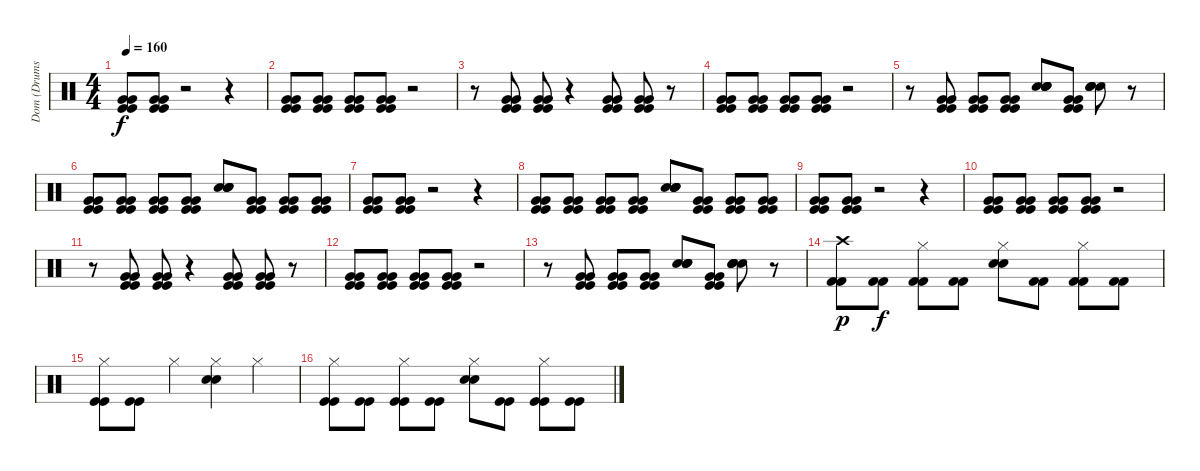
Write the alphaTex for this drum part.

\track ("Dom (Drums)" "Dom (Drums") {instrument percussion}
\staff {score}
\articulation defaults
\ts (4 4)
\tempo 160
\clef neutral
\ks c
("Very Low Tom (hit)" "Very Low Tom (hit)" "Kick (hit)" "Kick (hit)").8{dy f} ("Very Low Tom (hit)" "Very Low Tom (hit)" "Kick (hit)" "Kick (hit)").8 r.2 r.4 |
("Very Low Tom (hit)" "Very Low Tom (hit)" "Kick (hit)" "Kick (hit)").8 ("Very Low Tom (hit)" "Very Low Tom (hit)" "Kick (hit)" "Kick (hit)").8 ("Very Low Tom (hit)" "Very Low Tom (hit)" "Kick (hit)" "Kick (hit)").8 ("Very Low Tom (hit)" "Very Low Tom (hit)" "Kick (hit)" "Kick (hit)").8 r.2 |
r.8 ("Very Low Tom (hit)" "Very Low Tom (hit)" "Kick (hit)" "Kick (hit)").8 ("Very Low Tom (hit)" "Very Low Tom (hit)" "Kick (hit)" "Kick (hit)").8 r.4 ("Very Low Tom (hit)" "Very Low Tom (hit)" "Kick (hit)" "Kick (hit)").8 ("Very Low Tom (hit)" "Very Low Tom (hit)" "Kick (hit)" "Kick (hit)").8 r.8 |
("Very Low Tom (hit)" "Very Low Tom (hit)" "Kick (hit)" "Kick (hit)").8 ("Very Low Tom (hit)" "Very Low Tom (hit)" "Kick (hit)" "Kick (hit)").8 ("Very Low Tom (hit)" "Very Low Tom (hit)" "Kick (hit)" "Kick (hit)").8 ("Very Low Tom (hit)" "Very Low Tom (hit)" "Kick (hit)" "Kick (hit)").8 r.2 |
r.8 ("Very Low Tom (hit)" "Very Low Tom (hit)" "Kick (hit)" "Kick (hit)").8 ("Very Low Tom (hit)" "Very Low Tom (hit)" "Kick (hit)" "Kick (hit)").8 ("Very Low Tom (hit)" "Very Low Tom (hit)" "Kick (hit)" "Kick (hit)").8 ("Snare (hit) 2" "Snare (hit) 2" "Snare (hit) 2" "Snare (hit) 2").8 ("Very Low Tom (hit)" "Very Low Tom (hit)" "Kick (hit)" "Kick (hit)").8 ("Snare (hit) 2" "Snare (hit) 2" "Snare (hit) 2" "Snare (hit) 2").8 r.8 |
("Very Low Tom (hit)" "Very Low Tom (hit)" "Kick (hit)" "Kick (hit)").8{volume 10} ("Very Low Tom (hit)" "Very Low Tom (hit)" "Kick (hit)" "Kick (hit)").8 ("Very Low Tom (hit)" "Very Low Tom (hit)" "Kick (hit)" "Kick (hit)").8 ("Very Low Tom (hit)" "Very Low Tom (hit)" "Kick (hit)" "Kick (hit)").8 ("Snare (hit) 2" "Snare (hit) 2" "Snare (hit) 2" "Snare (hit) 2").8 ("Very Low Tom (hit)" "Very Low Tom (hit)" "Kick (hit)" "Kick (hit)").8 ("Very Low Tom (hit)" "Very Low Tom (hit)" "Kick (hit)" "Kick (hit)").8 ("Very Low Tom (hit)" "Very Low Tom (hit)" "Kick (hit)" "Kick (hit)").8 |
("Very Low Tom (hit)" "Very Low Tom (hit)" "Kick (hit)" "Kick (hit)").8 ("Very Low Tom (hit)" "Very Low Tom (hit)" "Kick (hit)" "Kick (hit)").8 r.2 r.4 |
("Very Low Tom (hit)" "Very Low Tom (hit)" "Kick (hit)" "Kick (hit)").8 ("Very Low Tom (hit)" "Very Low Tom (hit)" "Kick (hit)" "Kick (hit)").8 ("Very Low Tom (hit)" "Very Low Tom (hit)" "Kick (hit)" "Kick (hit)").8 ("Very Low Tom (hit)" "Very Low Tom (hit)" "Kick (hit)" "Kick (hit)").8 ("Snare (hit) 2" "Snare (hit) 2" "Snare (hit) 2" "Snare (hit) 2").8 ("Very Low Tom (hit)" "Very Low Tom (hit)" "Kick (hit)" "Kick (hit)").8 ("Very Low Tom (hit)" "Very Low Tom (hit)" "Kick (hit)" "Kick (hit)").8 ("Very Low Tom (hit)" "Very Low Tom (hit)" "Kick (hit)" "Kick (hit)").8 |
("Very Low Tom (hit)" "Very Low Tom (hit)" "Kick (hit)" "Kick (hit)").8 ("Very Low Tom (hit)" "Very Low Tom (hit)" "Kick (hit)" "Kick (hit)").8 r.2 r.4 |
("Very Low Tom (hit)" "Very Low Tom (hit)" "Kick (hit)" "Kick (hit)").8 ("Very Low Tom (hit)" "Very Low Tom (hit)" "Kick (hit)" "Kick (hit)").8 ("Very Low Tom (hit)" "Very Low Tom (hit)" "Kick (hit)" "Kick (hit)").8 ("Very Low Tom (hit)" "Very Low Tom (hit)" "Kick (hit)" "Kick (hit)").8 r.2 |
r.8 ("Very Low Tom (hit)" "Very Low Tom (hit)" "Kick (hit)" "Kick (hit)").8 ("Very Low Tom (hit)" "Very Low Tom (hit)" "Kick (hit)" "Kick (hit)").8 r.4 ("Very Low Tom (hit)" "Very Low Tom (hit)" "Kick (hit)" "Kick (hit)").8 ("Very Low Tom (hit)" "Very Low Tom (hit)" "Kick (hit)" "Kick (hit)").8 r.8 |
("Very Low Tom (hit)" "Very Low Tom (hit)" "Kick (hit)" "Kick (hit)").8 ("Very Low Tom (hit)" "Very Low Tom (hit)" "Kick (hit)" "Kick (hit)").8 ("Very Low Tom (hit)" "Very Low Tom (hit)" "Kick (hit)" "Kick (hit)").8 ("Very Low Tom (hit)" "Very Low Tom (hit)" "Kick (hit)" "Kick (hit)").8 r.2 |
r.8 ("Very Low Tom (hit)" "Very Low Tom (hit)" "Kick (hit)" "Kick (hit)").8 ("Very Low Tom (hit)" "Very Low Tom (hit)" "Kick (hit)" "Kick (hit)").8 ("Very Low Tom (hit)" "Very Low Tom (hit)" "Kick (hit)" "Kick (hit)").8 ("Snare (hit) 2" "Snare (hit) 2" "Snare (hit) 2" "Snare (hit) 2").8 ("Very Low Tom (hit)" "Very Low Tom (hit)" "Kick (hit)" "Kick (hit)").8 ("Snare (hit) 2" "Snare (hit) 2" "Snare (hit) 2" "Snare (hit) 2").8 r.8 |
("Crash high (hit)" "Kick (hit) 2" "Kick (hit) 2").8{dy p} ("Kick (hit) 2" "Kick (hit) 2").8{dy f} ("Hi-Hat (closed)" "Kick (hit) 2" "Kick (hit) 2").8 ("Kick (hit) 2" "Kick (hit) 2").8 ("Hi-Hat (closed)" "Snare (hit) 2" "Snare (hit) 2").8 ("Kick (hit) 2" "Kick (hit) 2").8 ("Hi-Hat (closed)" "Kick (hit) 2" "Kick (hit) 2").8 ("Kick (hit) 2" "Kick (hit) 2").8 |
("Hi-Hat (closed)" "Kick (hit)" "Kick (hit)").8 ("Kick (hit)" "Kick (hit)").8 "Hi-Hat (closed)".4 ("Hi-Hat (closed)" "Snare (hit) 2" "Snare (hit) 2").4 "Hi-Hat (closed)".4 |
("Hi-Hat (closed)" "Kick (hit)" "Kick (hit)").8 ("Kick (hit)" "Kick (hit)").8 ("Hi-Hat (closed)" "Kick (hit)" "Kick (hit)").8 ("Kick (hit)" "Kick (hit)").8 ("Hi-Hat (closed)" "Snare (hit) 2" "Snare (hit) 2").8 ("Kick (hit)" "Kick (hit)").8 ("Hi-Hat (closed)" "Kick (hit)" "Kick (hit)").8 ("Kick (hit)" "Kick (hit)").8
